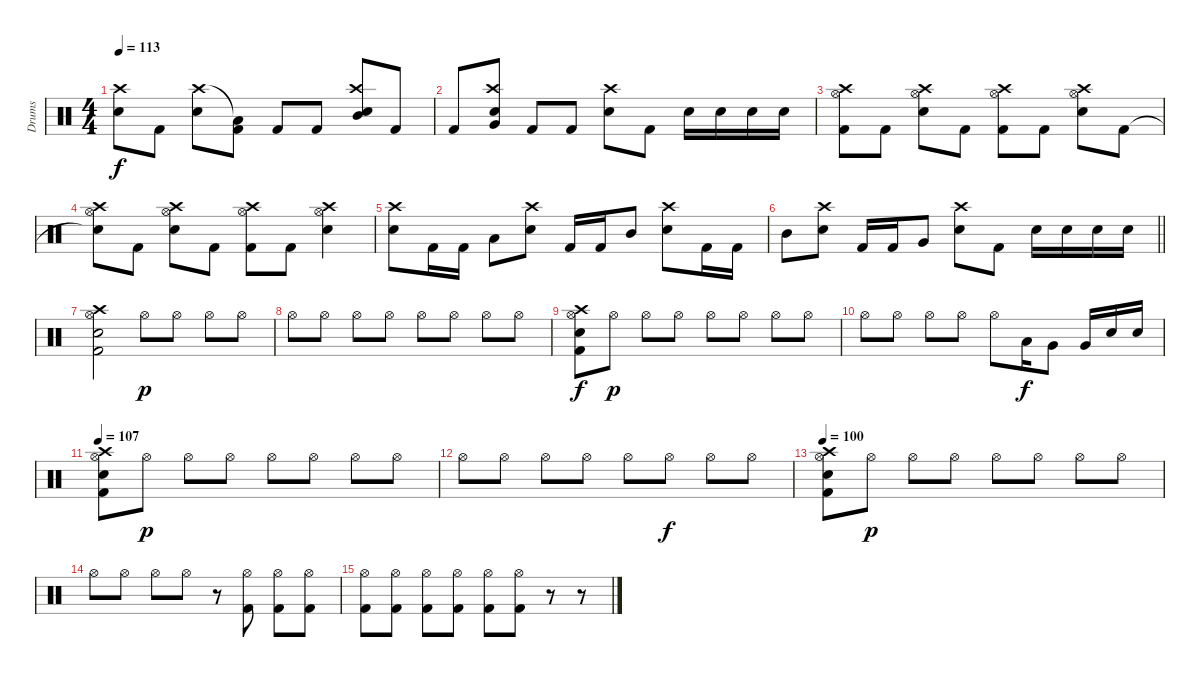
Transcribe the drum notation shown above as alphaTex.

\track ("Drums" "Drums") {instrument percussion}
\staff {score}
\articulation defaults
\ts (4 4)
\tempo 113
\clef neutral
\ks c
("Electric Snare (hit)" "Crash high (hit)").8{dy f} "Kick (hit) 2".8 ("Electric Snare (hit)" "Crash high (hit)").8 ("Kick (hit) 2" "Low Tom (hit)"{t}).8 "Kick (hit) 2".8 "Kick (hit) 2".8 ("Electric Snare (hit)" "Mid Tom (hit)" "Crash high (hit)").8 "Kick (hit) 2".8 |
"Kick (hit) 2".8 ("Electric Snare (hit)" "Very Low Tom (hit)" "Crash high (hit)").8 "Kick (hit) 2".8 "Kick (hit) 2".8 ("Electric Snare (hit)" "Crash high (hit)").8 "Kick (hit) 2".8 "Electric Snare (hit)".16 "Electric Snare (hit)".16 "Electric Snare (hit)".16 "Electric Snare (hit)".16 |
("Kick (hit) 2" "Hi-Hat (open)" "Crash high (hit)").8 "Kick (hit) 2".8 ("Electric Snare (hit)" "Hi-Hat (open)" "Crash high (hit)").8 "Kick (hit) 2".8 ("Kick (hit) 2" "Hi-Hat (open)" "Crash high (hit)").8 "Kick (hit) 2".8 ("Electric Snare (hit)" "Hi-Hat (open)" "Crash high (hit)").8 "Kick (hit) 2".8 |
("Snare (hit)"{t} "Hi-Hat (open)" "Crash high (hit)").8 "Kick (hit) 2".8 ("Electric Snare (hit)" "Hi-Hat (open)" "Crash high (hit)").8 "Kick (hit) 2".8 ("Kick (hit) 2" "Hi-Hat (open)" "Crash high (hit)").8 "Kick (hit) 2".8 ("Electric Snare (hit)" "Hi-Hat (open)" "Crash high (hit)").4 |
("Electric Snare (hit)" "Crash high (hit)").8 "Kick (hit) 2".16 "Kick (hit) 2".16 "Low Tom (hit)".8 ("Electric Snare (hit)" "Crash high (hit)").8 "Kick (hit) 2".16 "Kick (hit) 2".16 "Mid Tom (hit)".8 ("Electric Snare (hit)" "Crash high (hit)").8 "Kick (hit) 2".16 "Kick (hit) 2".16 |
\barLineRight lightlight "Mid Tom (hit)".8
("Electric Snare (hit)" "Crash high (hit)").8 "Kick (hit) 2".16 "Kick (hit) 2".16 "Very Low Tom (hit)".8 ("Electric Snare (hit)" "Crash high (hit)").8 "Kick (hit) 2".8 "Electric Snare (hit)".16 "Electric Snare (hit)".16 "Electric Snare (hit)".16 "Electric Snare (hit)".16 |
("Kick (hit) 2" "Hi-Hat (open)" "Crash high (hit)" "Electric Snare (hit)").2 "Hi-Hat (open)".8{dy p} "Hi-Hat (open)".8 "Hi-Hat (open)".8 "Hi-Hat (open)".8 |
"Hi-Hat (open)".8 "Hi-Hat (open)".8 "Hi-Hat (open)".8 "Hi-Hat (open)".8 "Hi-Hat (open)".8 "Hi-Hat (open)".8 "Hi-Hat (open)".8 "Hi-Hat (open)".8 |
("Kick (hit) 2" "Hi-Hat (open)" "Crash high (hit)" "Electric Snare (hit)").8{dy f} "Hi-Hat (open)".8{dy p} "Hi-Hat (open)".8 "Hi-Hat (open)".8 "Hi-Hat (open)".8 "Hi-Hat (open)".8 "Hi-Hat (open)".8 "Hi-Hat (open)".8 |
"Hi-Hat (open)".8 "Hi-Hat (open)".8 "Hi-Hat (open)".8 "Hi-Hat (open)".8 "Hi-Hat (open)".8 "Low Tom (hit)".16{dy f} "Very Low Tom (hit)".8 "Very Low Tom (hit)".16 "Electric Snare (hit)".16 "Electric Snare (hit)".16 |
\tempo 107
("Kick (hit) 2" "Hi-Hat (open)" "Crash high (hit)" "Electric Snare (hit)").8 "Hi-Hat (open)".8{dy p} "Hi-Hat (open)".8 "Hi-Hat (open)".8 "Hi-Hat (open)".8 "Hi-Hat (open)".8 "Hi-Hat (open)".8 "Hi-Hat (open)".8 |
"Hi-Hat (open)".8 "Hi-Hat (open)".8 "Hi-Hat (open)".8 "Hi-Hat (open)".8 "Hi-Hat (open)".8 "Hi-Hat (open)".8{dy f} "Hi-Hat (open)".8 "Hi-Hat (open)".8 |
\tempo 100
("Kick (hit) 2" "Hi-Hat (open)" "Crash high (hit)" "Electric Snare (hit)").8 "Hi-Hat (open)".8{dy p} "Hi-Hat (open)".8 "Hi-Hat (open)".8 "Hi-Hat (open)".8 "Hi-Hat (open)".8 "Hi-Hat (open)".8 "Hi-Hat (open)".8 |
"Hi-Hat (open)".8 "Hi-Hat (open)".8 "Hi-Hat (open)".8 "Hi-Hat (open)".8 r.8 ("Kick (hit) 2" "Hi-Hat (open)").8 ("Kick (hit) 2" "Hi-Hat (open)").8 ("Kick (hit) 2" "Hi-Hat (open)").8 |
("Kick (hit) 2" "Hi-Hat (open)").8 ("Kick (hit) 2" "Hi-Hat (open)").8 ("Kick (hit) 2" "Hi-Hat (open)").8 ("Kick (hit) 2" "Hi-Hat (open)").8 ("Kick (hit) 2" "Hi-Hat (open)").8 ("Kick (hit) 2" "Hi-Hat (open)").8 r.8 r.8
